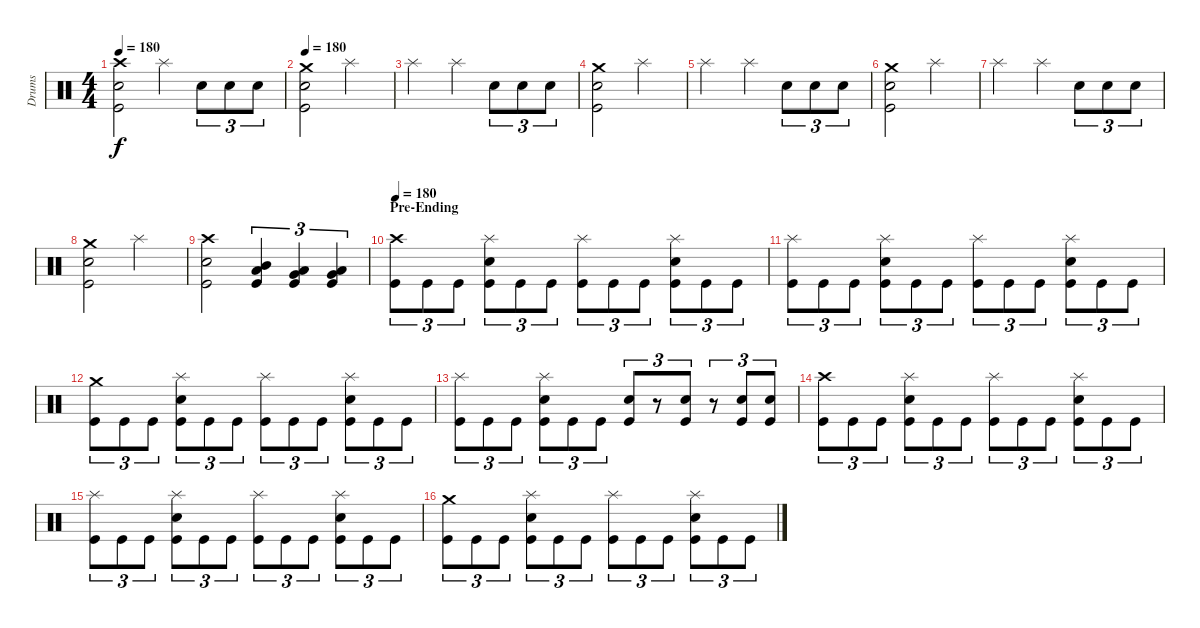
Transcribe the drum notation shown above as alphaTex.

\track ("Drums" "Drums") {instrument percussion}
\staff {score}
\articulation defaults
\ts (4 4)
\tempo 180
\clef neutral
\ks c
("Crash high (hit)" "Electric Snare (hit)" "Kick (hit)").2{dy f} "Splash (hit)".4 "Electric Snare (hit)".8{tu (3 2)} "Electric Snare (hit)".8{tu (3 2)} "Electric Snare (hit)".8{tu (3 2)} |
\tempo 180
("Crash medium (hit)" "Electric Snare (hit)" "Kick (hit)").2 "Splash (hit)".2 |
"Splash (hit)".2 "Splash (hit)".4 "Electric Snare (hit)".8{tu (3 2)} "Electric Snare (hit)".8{tu (3 2)} "Electric Snare (hit)".8{tu (3 2)} |
("Crash medium (hit)" "Electric Snare (hit)" "Kick (hit)").2 "Splash (hit)".2 |
"Splash (hit)".2 "Splash (hit)".4 "Electric Snare (hit)".8{tu (3 2)} "Electric Snare (hit)".8{tu (3 2)} "Electric Snare (hit)".8{tu (3 2)} |
("Crash medium (hit)" "Electric Snare (hit)" "Kick (hit)").2 "Splash (hit)".2 |
"Splash (hit)".2 "Splash (hit)".4 "Electric Snare (hit)".8{tu (3 2)} "Electric Snare (hit)".8{tu (3 2)} "Electric Snare (hit)".8{tu (3 2)} |
("Crash medium (hit)" "Electric Snare (hit)" "Kick (hit)").2 "Splash (hit)".2 |
("Crash high (hit)" "Electric Snare (hit)" "Kick (hit)").2 ("Low Tom (hit)" "Mid Tom (hit)" "Kick (hit)").4{tu (3 2)} ("Very Low Tom (hit)" "Low Tom (hit)" "Kick (hit)").4{tu (3 2)} ("Low Floor Tom (hit)" "Very Low Tom (hit)" "Kick (hit)").4{tu (3 2)} |
\section ("" "Pre-Ending")
\tempo 180
("Crash high (hit)" "Kick (hit)").8{tu (3 2)} "Kick (hit)".8{tu (3 2)} "Kick (hit)".8{tu (3 2)} ("Splash (hit)" "Electric Snare (hit)" "Kick (hit)").8{tu (3 2)} "Kick (hit)".8{tu (3 2)} "Kick (hit)".8{tu (3 2)} ("Splash (hit)" "Kick (hit)").8{tu (3 2)} "Kick (hit)".8{tu (3 2)} "Kick (hit)".8{tu (3 2)} ("Splash (hit)" "Electric Snare (hit)" "Kick (hit)").8{tu (3 2)} "Kick (hit)".8{tu (3 2)} "Kick (hit)".8{tu (3 2)} |
("Splash (hit)" "Kick (hit)").8{tu (3 2)} "Kick (hit)".8{tu (3 2)} "Kick (hit)".8{tu (3 2)} ("Splash (hit)" "Electric Snare (hit)" "Kick (hit)").8{tu (3 2)} "Kick (hit)".8{tu (3 2)} "Kick (hit)".8{tu (3 2)} ("Splash (hit)" "Kick (hit)").8{tu (3 2)} "Kick (hit)".8{tu (3 2)} "Kick (hit)".8{tu (3 2)} ("Splash (hit)" "Electric Snare (hit)" "Kick (hit)").8{tu (3 2)} "Kick (hit)".8{tu (3 2)} "Kick (hit)".8{tu (3 2)} |
("Crash medium (hit)" "Kick (hit)").8{tu (3 2)} "Kick (hit)".8{tu (3 2)} "Kick (hit)".8{tu (3 2)} ("Splash (hit)" "Electric Snare (hit)" "Kick (hit)").8{tu (3 2)} "Kick (hit)".8{tu (3 2)} "Kick (hit)".8{tu (3 2)} ("Splash (hit)" "Kick (hit)").8{tu (3 2)} "Kick (hit)".8{tu (3 2)} "Kick (hit)".8{tu (3 2)} ("Splash (hit)" "Electric Snare (hit)" "Kick (hit)").8{tu (3 2)} "Kick (hit)".8{tu (3 2)} "Kick (hit)".8{tu (3 2)} |
("Splash (hit)" "Kick (hit)").8{tu (3 2)} "Kick (hit)".8{tu (3 2)} "Kick (hit)".8{tu (3 2)} ("Splash (hit)" "Electric Snare (hit)" "Kick (hit)").8{tu (3 2)} "Kick (hit)".8{tu (3 2)} "Kick (hit)".8{tu (3 2)} ("Electric Snare (hit)" "Kick (hit)").8{tu (3 2)} r.8{tu (3 2)} ("Electric Snare (hit)" "Kick (hit)").8{tu (3 2)} r.8{tu (3 2)} ("Electric Snare (hit)" "Kick (hit)").8{tu (3 2)} ("Electric Snare (hit)" "Kick (hit)").8{tu (3 2)} |
("Crash high (hit)" "Kick (hit)").8{tu (3 2)} "Kick (hit)".8{tu (3 2)} "Kick (hit)".8{tu (3 2)} ("Splash (hit)" "Electric Snare (hit)" "Kick (hit)").8{tu (3 2)} "Kick (hit)".8{tu (3 2)} "Kick (hit)".8{tu (3 2)} ("Splash (hit)" "Kick (hit)").8{tu (3 2)} "Kick (hit)".8{tu (3 2)} "Kick (hit)".8{tu (3 2)} ("Splash (hit)" "Electric Snare (hit)" "Kick (hit)").8{tu (3 2)} "Kick (hit)".8{tu (3 2)} "Kick (hit)".8{tu (3 2)} |
("Splash (hit)" "Kick (hit)").8{tu (3 2)} "Kick (hit)".8{tu (3 2)} "Kick (hit)".8{tu (3 2)} ("Splash (hit)" "Electric Snare (hit)" "Kick (hit)").8{tu (3 2)} "Kick (hit)".8{tu (3 2)} "Kick (hit)".8{tu (3 2)} ("Splash (hit)" "Kick (hit)").8{tu (3 2)} "Kick (hit)".8{tu (3 2)} "Kick (hit)".8{tu (3 2)} ("Splash (hit)" "Electric Snare (hit)" "Kick (hit)").8{tu (3 2)} "Kick (hit)".8{tu (3 2)} "Kick (hit)".8{tu (3 2)} |
("Crash medium (hit)" "Kick (hit)").8{tu (3 2)} "Kick (hit)".8{tu (3 2)} "Kick (hit)".8{tu (3 2)} ("Splash (hit)" "Electric Snare (hit)" "Kick (hit)").8{tu (3 2)} "Kick (hit)".8{tu (3 2)} "Kick (hit)".8{tu (3 2)} ("Splash (hit)" "Kick (hit)").8{tu (3 2)} "Kick (hit)".8{tu (3 2)} "Kick (hit)".8{tu (3 2)} ("Splash (hit)" "Electric Snare (hit)" "Kick (hit)").8{tu (3 2)} "Kick (hit)".8{tu (3 2)} "Kick (hit)".8{tu (3 2)}
